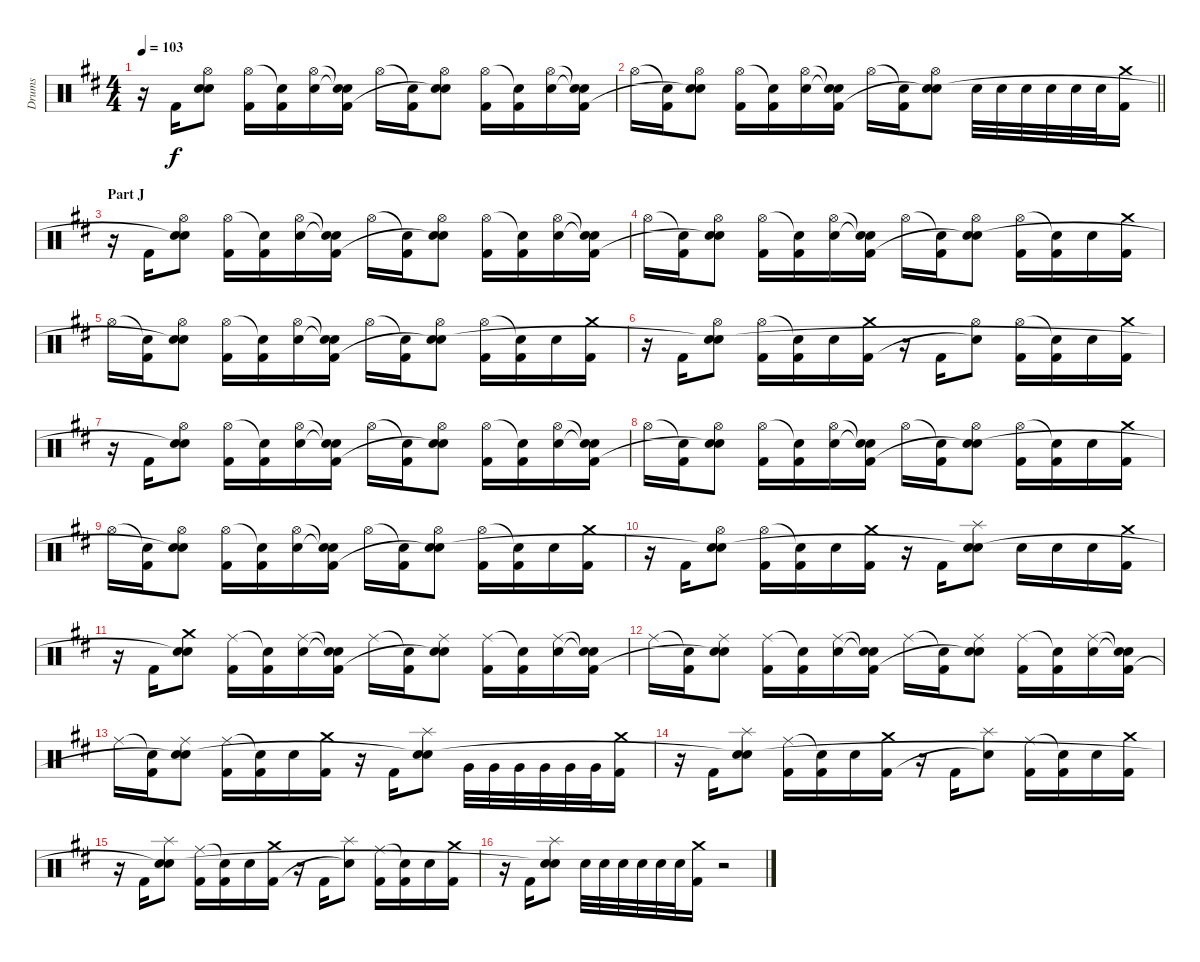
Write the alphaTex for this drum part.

\track ("Drums" "Drums") {instrument percussion}
\staff {score}
\articulation defaults
\ts (4 4)
\tempo 103
\clef neutral
\ks d
r.16{dy f} "Kick (hit) 2".16 ("Hi-Hat (open)" "Electric Snare (hit)" "Snare (hit)"{t}).8 ("Hi-Hat (open)" "Kick (hit) 2").16 ("Snare (hit)"{t} "Kick (hit) 2").16 ("Hi-Hat (open)" "Electric Snare (hit)").16 ("Snare (hit)"{t} "Snare (hit)"{t} "Kick (hit) 2").16 "Hi-Hat (open)".16 ("Snare (hit)"{t} "Kick (hit) 2").16 ("Hi-Hat (open)" "Electric Snare (hit)" "Snare (hit)"{t}).8 ("Hi-Hat (open)" "Kick (hit) 2").16 ("Snare (hit)"{t} "Kick (hit) 2").16 ("Hi-Hat (open)" "Electric Snare (hit)").16 ("Snare (hit)"{t} "Snare (hit)"{t} "Kick (hit) 2").16 |
\barLineRight lightlight "Hi-Hat (open)".16
("Snare (hit)"{t} "Kick (hit) 2").16 ("Hi-Hat (open)" "Electric Snare (hit)" "Snare (hit)"{t}).8 ("Hi-Hat (open)" "Kick (hit) 2").16 ("Snare (hit)"{t} "Kick (hit) 2").16 ("Hi-Hat (open)" "Electric Snare (hit)").16 ("Snare (hit)"{t} "Snare (hit)"{t} "Kick (hit) 2").16 "Hi-Hat (open)".16 ("Snare (hit)"{t} "Kick (hit) 2").16 ("Hi-Hat (open)" "Electric Snare (hit)" "Snare (hit)"{t}).8 "Electric Snare (hit)".32 "Electric Snare (hit)".32 "Electric Snare (hit)".32 "Electric Snare (hit)".32 "Electric Snare (hit)".32 "Electric Snare (hit)".32 ("Crash medium (hit)" "Kick (hit) 2").16 |
\section ("" "Part J")
r.16 "Kick (hit) 2".16 ("Hi-Hat (open)" "Electric Snare (hit)" "Snare (hit)"{t}).8 ("Hi-Hat (open)" "Kick (hit) 2").16 ("Snare (hit)"{t} "Kick (hit) 2").16 ("Hi-Hat (open)" "Electric Snare (hit)").16 ("Snare (hit)"{t} "Snare (hit)"{t} "Kick (hit) 2").16 "Hi-Hat (open)".16 ("Snare (hit)"{t} "Kick (hit) 2").16 ("Hi-Hat (open)" "Electric Snare (hit)" "Snare (hit)"{t}).8 ("Hi-Hat (open)" "Kick (hit) 2").16 ("Snare (hit)"{t} "Kick (hit) 2").16 ("Hi-Hat (open)" "Electric Snare (hit)").16 ("Snare (hit)"{t} "Snare (hit)"{t} "Kick (hit) 2").16 |
"Hi-Hat (open)".16 ("Snare (hit)"{t} "Kick (hit) 2").16 ("Hi-Hat (open)" "Electric Snare (hit)" "Snare (hit)"{t}).8 ("Hi-Hat (open)" "Kick (hit) 2").16 ("Snare (hit)"{t} "Kick (hit) 2").16 ("Hi-Hat (open)" "Electric Snare (hit)").16 ("Snare (hit)"{t} "Snare (hit)"{t} "Kick (hit) 2").16 "Hi-Hat (open)".16 ("Snare (hit)"{t} "Kick (hit) 2").16 ("Hi-Hat (open)" "Electric Snare (hit)" "Snare (hit)"{t}).8 ("Hi-Hat (open)" "Kick (hit) 2").16 ("Snare (hit)"{t} "Kick (hit) 2").16 "Electric Snare (hit)".16 ("Crash medium (hit)" "Kick (hit) 2").16 |
"Hi-Hat (open)".16 ("Snare (hit)"{t} "Kick (hit) 2").16 ("Hi-Hat (open)" "Electric Snare (hit)" "Snare (hit)"{t}).8 ("Hi-Hat (open)" "Kick (hit) 2").16 ("Snare (hit)"{t} "Kick (hit) 2").16 ("Hi-Hat (open)" "Electric Snare (hit)").16 ("Snare (hit)"{t} "Snare (hit)"{t} "Kick (hit) 2").16 "Hi-Hat (open)".16 ("Snare (hit)"{t} "Kick (hit) 2").16 ("Hi-Hat (open)" "Electric Snare (hit)" "Snare (hit)"{t}).8 ("Hi-Hat (open)" "Kick (hit) 2").16 ("Snare (hit)"{t} "Kick (hit) 2").16 "Electric Snare (hit)".16 ("Crash medium (hit)" "Kick (hit) 2").16 |
r.16 "Kick (hit) 2".16 ("Hi-Hat (open)" "Electric Snare (hit)" "Snare (hit)"{t}).8 ("Hi-Hat (open)" "Kick (hit) 2").16 ("Snare (hit)"{t} "Kick (hit) 2").16 "Electric Snare (hit)".16 ("Crash medium (hit)" "Kick (hit) 2").16 r.16 "Kick (hit) 2".16 ("Hi-Hat (open)" "Snare (hit)"{t}).8 ("Hi-Hat (open)" "Kick (hit) 2").16 ("Snare (hit)"{t} "Kick (hit) 2").16 "Electric Snare (hit)".16 ("Crash medium (hit)" "Kick (hit) 2").16 |
r.16 "Kick (hit) 2".16 ("Hi-Hat (open)" "Electric Snare (hit)" "Snare (hit)"{t}).8 ("Hi-Hat (open)" "Kick (hit) 2").16 ("Snare (hit)"{t} "Kick (hit) 2").16 ("Hi-Hat (open)" "Electric Snare (hit)").16 ("Snare (hit)"{t} "Snare (hit)"{t} "Kick (hit) 2").16 "Hi-Hat (open)".16 ("Snare (hit)"{t} "Kick (hit) 2").16 ("Hi-Hat (open)" "Electric Snare (hit)" "Snare (hit)"{t}).8 ("Hi-Hat (open)" "Kick (hit) 2").16 ("Snare (hit)"{t} "Kick (hit) 2").16 ("Hi-Hat (open)" "Electric Snare (hit)").16 ("Snare (hit)"{t} "Snare (hit)"{t} "Kick (hit) 2").16 |
"Hi-Hat (open)".16 ("Snare (hit)"{t} "Kick (hit) 2").16 ("Hi-Hat (open)" "Electric Snare (hit)" "Snare (hit)"{t}).8 ("Hi-Hat (open)" "Kick (hit) 2").16 ("Snare (hit)"{t} "Kick (hit) 2").16 ("Hi-Hat (open)" "Electric Snare (hit)").16 ("Snare (hit)"{t} "Snare (hit)"{t} "Kick (hit) 2").16 "Hi-Hat (open)".16 ("Snare (hit)"{t} "Kick (hit) 2").16 ("Hi-Hat (open)" "Electric Snare (hit)" "Snare (hit)"{t}).8 ("Hi-Hat (open)" "Kick (hit) 2").16 ("Snare (hit)"{t} "Kick (hit) 2").16 "Electric Snare (hit)".16 ("Crash medium (hit)" "Kick (hit) 2").16 |
"Hi-Hat (open)".16 ("Snare (hit)"{t} "Kick (hit) 2").16 ("Hi-Hat (open)" "Electric Snare (hit)" "Snare (hit)"{t}).8 ("Hi-Hat (open)" "Kick (hit) 2").16 ("Snare (hit)"{t} "Kick (hit) 2").16 ("Hi-Hat (open)" "Electric Snare (hit)").16 ("Snare (hit)"{t} "Snare (hit)"{t} "Kick (hit) 2").16 "Hi-Hat (open)".16 ("Snare (hit)"{t} "Kick (hit) 2").16 ("Hi-Hat (open)" "Electric Snare (hit)" "Snare (hit)"{t}).8 ("Hi-Hat (open)" "Kick (hit) 2").16 ("Snare (hit)"{t} "Kick (hit) 2").16 "Electric Snare (hit)".16 ("Crash medium (hit)" "Kick (hit) 2").16 |
r.16 "Kick (hit) 2".16 ("Hi-Hat (open)" "Electric Snare (hit)" "Snare (hit)"{t}).8 ("Hi-Hat (open)" "Kick (hit) 2").16 ("Snare (hit)"{t} "Kick (hit) 2").16 "Electric Snare (hit)".16 ("Crash medium (hit)" "Kick (hit) 2").16 r.16 "Kick (hit) 2".16 ("Splash (hit)" "Electric Snare (hit)" "Snare (hit)"{t}).8 "Electric Snare (hit)".16 "Electric Snare (hit)".16 "Electric Snare (hit)".16 ("Crash medium (hit)" "Kick (hit) 2").16 |
r.16 "Kick (hit) 2".16 ("Crash medium (hit)" "Electric Snare (hit)" "Snare (hit)"{t}).8 ("Ride (middle)" "Kick (hit) 2").16 ("Snare (hit)"{t} "Kick (hit) 2").16 ("Ride (middle)" "Electric Snare (hit)").16 ("Snare (hit)"{t} "Snare (hit)"{t} "Kick (hit) 2").16 "Ride (middle)".16 ("Snare (hit)"{t} "Kick (hit) 2").16 ("Ride (middle)" "Electric Snare (hit)" "Snare (hit)"{t}).8 ("Ride (middle)" "Kick (hit) 2").16 ("Snare (hit)"{t} "Kick (hit) 2").16 ("Ride (middle)" "Electric Snare (hit)").16 ("Snare (hit)"{t} "Snare (hit)"{t} "Kick (hit) 2").16 |
"Ride (middle)".16 ("Snare (hit)"{t} "Kick (hit) 2").16 ("Ride (middle)" "Electric Snare (hit)" "Snare (hit)"{t}).8 ("Ride (middle)" "Kick (hit) 2").16 ("Snare (hit)"{t} "Kick (hit) 2").16 ("Ride (middle)" "Electric Snare (hit)").16 ("Snare (hit)"{t} "Snare (hit)"{t} "Kick (hit) 2").16 "Ride (middle)".16 ("Snare (hit)"{t} "Kick (hit) 2").16 ("Ride (middle)" "Electric Snare (hit)" "Snare (hit)"{t}).8 ("Ride (middle)" "Kick (hit) 2").16 ("Snare (hit)"{t} "Kick (hit) 2").16 ("Ride (middle)" "Electric Snare (hit)").16 ("Snare (hit)"{t} "Snare (hit)"{t} "Kick (hit) 2").16 |
"Ride (middle)".16 ("Snare (hit)"{t} "Kick (hit) 2").16 ("Ride (middle)" "Electric Snare (hit)" "Snare (hit)"{t}).8 ("Ride (middle)" "Kick (hit) 2").16 ("Snare (hit)"{t} "Kick (hit) 2").16 "Electric Snare (hit)".16 ("Crash medium (hit)" "Kick (hit) 2").16 r.16 "Kick (hit) 2".16 ("Splash (hit)" "Electric Snare (hit)" "Snare (hit)"{t}).8 "Very Low Tom (hit)".32 "Very Low Tom (hit)".32 "Very Low Tom (hit)".32 "Very Low Tom (hit)".32 "Very Low Tom (hit)".32 "Very Low Tom (hit)".32 ("Crash medium (hit)" "Kick (hit) 2").16 |
r.16 "Kick (hit) 2".16 ("Splash (hit)" "Electric Snare (hit)" "Snare (hit)"{t}).8 ("Ride (middle)" "Kick (hit) 2").16 ("Snare (hit)"{t} "Kick (hit) 2").16 "Electric Snare (hit)".16 ("Crash medium (hit)" "Kick (hit) 2").16 r.16 "Kick (hit) 2".16 ("Splash (hit)" "Snare (hit)"{t}).8 ("Ride (middle)" "Kick (hit) 2").16 ("Snare (hit)"{t} "Kick (hit) 2").16 "Electric Snare (hit)".16 ("Crash medium (hit)" "Kick (hit) 2").16 |
r.16 "Kick (hit) 2".16 ("Splash (hit)" "Electric Snare (hit)" "Snare (hit)"{t}).8 ("Ride (middle)" "Kick (hit) 2").16 ("Snare (hit)"{t} "Kick (hit) 2").16 "Electric Snare (hit)".16 ("Crash medium (hit)" "Kick (hit) 2").16 r.16 "Kick (hit) 2".16 ("Splash (hit)" "Snare (hit)"{t}).8 ("Ride (middle)" "Kick (hit) 2").16 ("Snare (hit)"{t} "Kick (hit) 2").16 "Electric Snare (hit)".16 ("Crash medium (hit)" "Kick (hit) 2").16 |
r.16 "Kick (hit) 2".16 ("Splash (hit)" "Electric Snare (hit)" "Snare (hit)"{t}).8 "Electric Snare (hit)".32 "Electric Snare (hit)".32 "Electric Snare (hit)".32 "Electric Snare (hit)".32 "Electric Snare (hit)".32 "Electric Snare (hit)".32 ("Crash medium (hit)" "Kick (hit) 2").16 r.2
